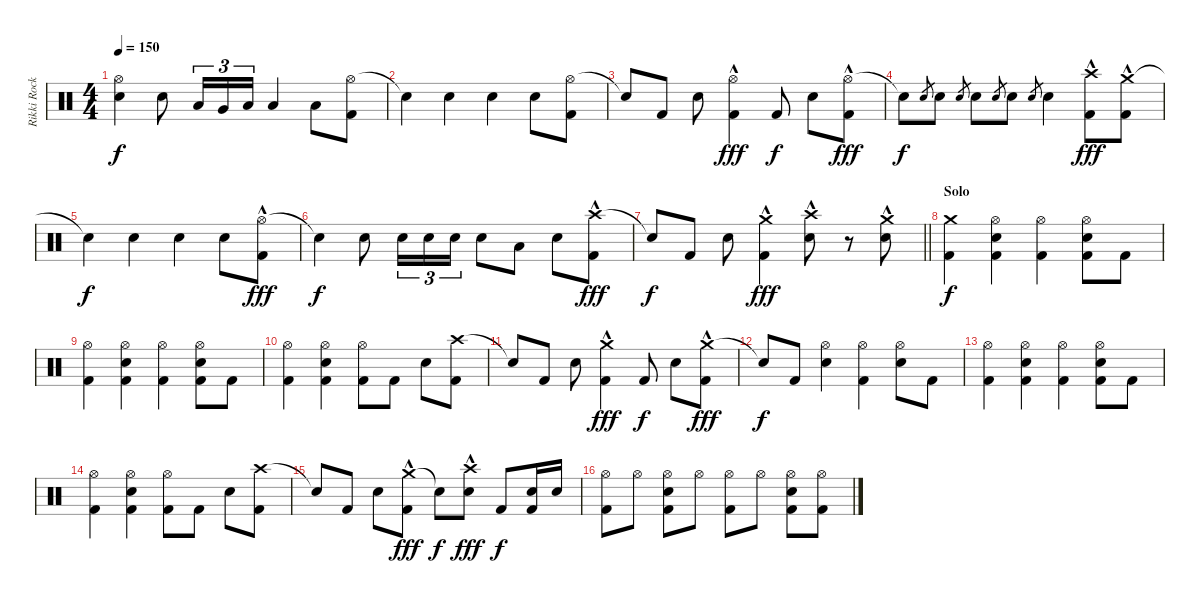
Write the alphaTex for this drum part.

\track ("Rikki Rockett - Drums" "Rikki Rock") {instrument percussion}
\staff {score}
\articulation defaults
\ts (4 4)
\tempo 150
\clef neutral
\ks c
("Hi-Hat (open)"{t} "Snare (hit)"{t}).4{dy f} "Electric Snare (hit)".8 "Low Tom (hit)".16{tu (3 2)} "Very Low Tom (hit)".16{tu (3 2)} "Low Floor Tom (hit)".16{tu (3 2)} "Low Tom (hit)".4 "Low Floor Tom (hit)".8 ("Hi-Hat (open)" "Kick (hit) 2").8 |
"Snare (hit)"{t}.4 "Electric Snare (hit)".4 "Electric Snare (hit)".4 "Electric Snare (hit)".8 ("Hi-Hat (open)" "Kick (hit) 2").8 |
"Snare (hit)"{t}.8 "Kick (hit) 2".8 "Electric Snare (hit)".8 ("Hi-Hat (open)"{hac} "Kick (hit) 2"{hac}).4{dy fff} "Kick (hit) 2".8{dy f} "Electric Snare (hit)".8 ("Hi-Hat (open)"{hac} "Kick (hit) 2"{hac}).8{dy fff} |
"Snare (hit)"{t}.8{dy f} "Electric Snare (hit)".8{gr} "Electric Snare (hit)".8 "Electric Snare (hit)".8{gr} "Electric Snare (hit)".8 "Electric Snare (hit)".8{gr} "Electric Snare (hit)".8 "Electric Snare (hit)".8{gr} "Electric Snare (hit)".4 ("Crash high (hit)"{hac} "Kick (hit) 2"{hac}).8{dy fff} ("Crash medium (hit)"{hac} "Kick (hit) 2"{hac}).8 |
"Snare (hit)"{t}.4{dy f} "Electric Snare (hit)".4 "Electric Snare (hit)".4 "Electric Snare (hit)".8 ("Hi-Hat (open)"{hac} "Kick (hit) 2"{hac}).8{dy fff} |
"Snare (hit)"{t}.4{dy f} "Electric Snare (hit)".8 "Electric Snare (hit)".16{tu (3 2)} "Electric Snare (hit)".16{tu (3 2)} "Electric Snare (hit)".16{tu (3 2)} "Electric Snare (hit)".8 "Low Tom (hit)".8 "Electric Snare (hit)".8 ("Crash high (hit)"{hac} "Kick (hit) 2"{hac}).8{dy fff} |
\barLineRight lightlight "Snare (hit)"{t}.8{dy f} "Kick (hit) 2".8 "Electric Snare (hit)".8
("Crash medium (hit)"{hac} "Kick (hit) 2"{hac}).4{dy fff} ("Crash high (hit)"{hac} "Electric Snare (hit)"{hac}).8 r.8{volume 0} ("Crash medium (hit)"{hac} "Electric Snare (hit)"{hac}).8{volume 16} |
\section ("" "Solo")
("Crash medium (hit)" "Kick (hit) 2").4{dy f} ("Hi-Hat (open)" "Electric Snare (hit)" "Kick (hit) 2").4 ("Hi-Hat (open)" "Kick (hit) 2").4 ("Hi-Hat (open)" "Electric Snare (hit)" "Kick (hit) 2").8 "Kick (hit) 2".8 |
("Hi-Hat (open)" "Kick (hit) 2").4 ("Hi-Hat (open)" "Electric Snare (hit)" "Kick (hit) 2").4 ("Hi-Hat (open)" "Kick (hit) 2").4 ("Hi-Hat (open)" "Electric Snare (hit)" "Kick (hit) 2").8 "Kick (hit) 2".8 |
("Hi-Hat (open)" "Kick (hit) 2").4 ("Hi-Hat (open)" "Electric Snare (hit)" "Kick (hit) 2").4 ("Hi-Hat (open)" "Kick (hit) 2").8 "Kick (hit) 2".8 "Electric Snare (hit)".8 ("Crash high (hit)" "Kick (hit) 2").8 |
"Snare (hit)"{t}.8 "Kick (hit) 2".8 "Electric Snare (hit)".8 ("Crash medium (hit)"{hac} "Kick (hit) 2"{hac}).4{dy fff} "Kick (hit) 2".8{dy f} "Electric Snare (hit)".8 ("Crash medium (hit)"{hac} "Kick (hit) 2"{hac}).8{dy fff} |
"Snare (hit)"{t}.8{dy f} "Kick (hit) 2".8 ("Hi-Hat (open)" "Electric Snare (hit)").4 ("Hi-Hat (open)" "Kick (hit) 2").4 ("Hi-Hat (open)" "Electric Snare (hit)").8 "Kick (hit) 2".8 |
("Hi-Hat (open)" "Kick (hit) 2").4 ("Hi-Hat (open)" "Electric Snare (hit)" "Kick (hit) 2").4 ("Hi-Hat (open)" "Kick (hit) 2").4 ("Hi-Hat (open)" "Electric Snare (hit)" "Kick (hit) 2").8 "Kick (hit) 2".8 |
("Hi-Hat (open)" "Kick (hit) 2").4 ("Hi-Hat (open)" "Electric Snare (hit)" "Kick (hit) 2").4 ("Hi-Hat (open)" "Kick (hit) 2").8 "Kick (hit) 2".8 "Electric Snare (hit)".8 ("Crash high (hit)" "Kick (hit) 2").8 |
"Snare (hit)"{t}.8 "Kick (hit) 2".8 "Electric Snare (hit)".8 ("Crash medium (hit)"{hac} "Kick (hit) 2"{hac}).8{dy fff} "Snare (hit)"{t}.8{dy f} ("Crash high (hit)"{hac} "Electric Snare (hit)"{hac}).8{dy fff} "Kick (hit) 2".8{dy f} ("Electric Snare (hit)" "Kick (hit) 2").16 "Electric Snare (hit)".16 |
("Hi-Hat (open)" "Kick (hit) 2").8 "Hi-Hat (open)".8 ("Hi-Hat (open)" "Electric Snare (hit)" "Kick (hit) 2").8 "Hi-Hat (open)".8 ("Hi-Hat (open)" "Kick (hit) 2").8 "Hi-Hat (open)".8 ("Hi-Hat (open)" "Electric Snare (hit)" "Kick (hit) 2").8 ("Hi-Hat (open)" "Kick (hit) 2").8
